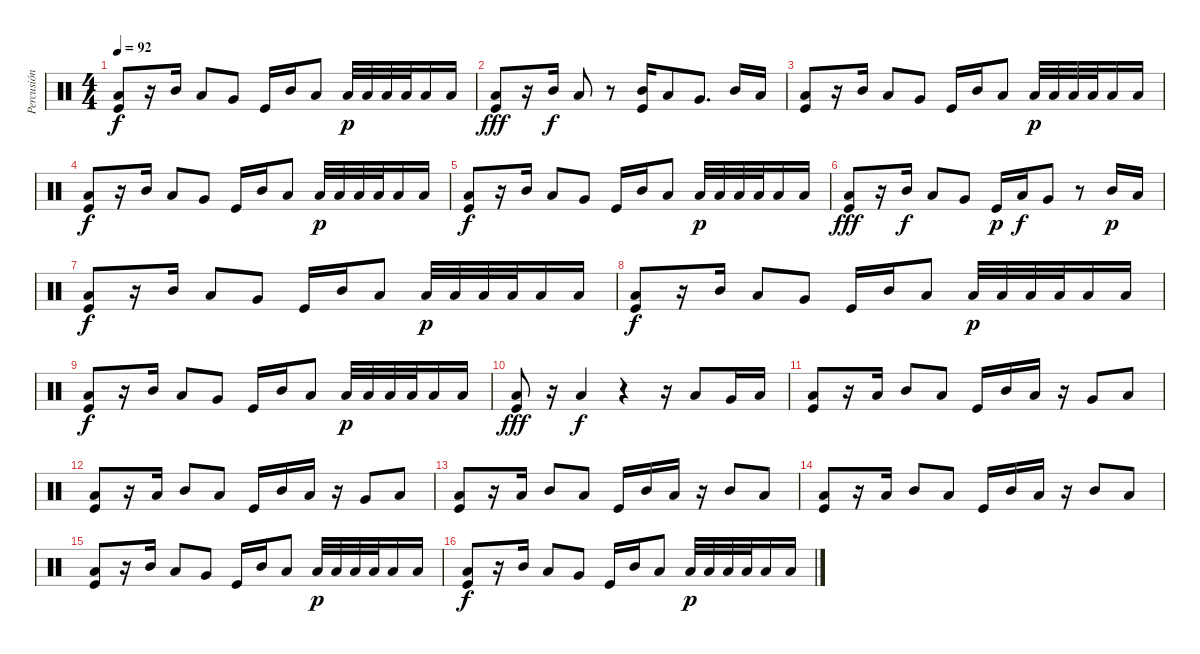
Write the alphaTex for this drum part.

\track ("Percusión" "Percusión") {instrument percussion}
\staff {score}
\articulation defaults
\ts (4 4)
\tempo 92
\clef neutral
\ks c
("Low Tom (hit)" "Kick (hit)").8{dy f} r.16 "Mid Tom (hit)".16 "Low Tom (hit)".8 "Very Low Tom (hit)".8 "Kick (hit)".16 "Mid Tom (hit)".16 "Low Tom (hit)".8 "Low Floor Tom (hit)".32{dy p} "Low Floor Tom (hit)".32 "Low Floor Tom (hit)".32 "Low Floor Tom (hit)".32 "Low Floor Tom (hit)".16 "Low Floor Tom (hit)".16 |
("Low Tom (hit)" "Kick (hit)").8{dy fff} r.16 "Mid Tom (hit)".16{dy f} "Low Tom (hit)".8 r.8 ("Mid Tom (hit)" "Kick (hit)").16 "Low Tom (hit)".8 "Very Low Tom (hit)".8{d} "Mid Tom (hit)".16 "Low Tom (hit)".16 |
("Low Tom (hit)" "Kick (hit)").8 r.16 "Mid Tom (hit)".16 "Low Tom (hit)".8 "Very Low Tom (hit)".8 "Kick (hit)".16 "Mid Tom (hit)".16 "Low Tom (hit)".8 "Low Floor Tom (hit)".32{dy p} "Low Floor Tom (hit)".32 "Low Floor Tom (hit)".32 "Low Floor Tom (hit)".32 "Low Floor Tom (hit)".16 "Low Floor Tom (hit)".16 |
("Low Tom (hit)" "Kick (hit)").8{dy f} r.16 "Mid Tom (hit)".16 "Low Tom (hit)".8 "Very Low Tom (hit)".8 "Kick (hit)".16 "Mid Tom (hit)".16 "Low Tom (hit)".8 "Low Floor Tom (hit)".32{dy p} "Low Floor Tom (hit)".32 "Low Floor Tom (hit)".32 "Low Floor Tom (hit)".32 "Low Floor Tom (hit)".16 "Low Floor Tom (hit)".16 |
("Low Tom (hit)" "Kick (hit)").8{dy f} r.16 "Mid Tom (hit)".16 "Low Tom (hit)".8 "Very Low Tom (hit)".8 "Kick (hit)".16 "Mid Tom (hit)".16 "Low Tom (hit)".8 "Low Floor Tom (hit)".32{dy p} "Low Floor Tom (hit)".32 "Low Floor Tom (hit)".32 "Low Floor Tom (hit)".32 "Low Floor Tom (hit)".16 "Low Floor Tom (hit)".16 |
("Low Tom (hit)" "Kick (hit)").8{dy fff} r.16 "Mid Tom (hit)".16{dy f} "Low Tom (hit)".8 "Very Low Tom (hit)".8 "Kick (hit)".16{dy p} "Low Tom (hit)".16{dy f} "Very Low Tom (hit)".8 r.8 "Mid Tom (hit)".16{dy p} "Low Tom (hit)".16 |
("Low Tom (hit)" "Kick (hit)").8{dy f} r.16 "Mid Tom (hit)".16 "Low Tom (hit)".8 "Very Low Tom (hit)".8 "Kick (hit)".16 "Mid Tom (hit)".16 "Low Tom (hit)".8 "Low Floor Tom (hit)".32{dy p} "Low Floor Tom (hit)".32 "Low Floor Tom (hit)".32 "Low Floor Tom (hit)".32 "Low Floor Tom (hit)".16 "Low Floor Tom (hit)".16 |
("Low Tom (hit)" "Kick (hit)").8{dy f} r.16 "Mid Tom (hit)".16 "Low Tom (hit)".8 "Very Low Tom (hit)".8 "Kick (hit)".16 "Mid Tom (hit)".16 "Low Tom (hit)".8 "Low Floor Tom (hit)".32{dy p} "Low Floor Tom (hit)".32 "Low Floor Tom (hit)".32 "Low Floor Tom (hit)".32 "Low Floor Tom (hit)".16 "Low Floor Tom (hit)".16 |
("Low Tom (hit)" "Kick (hit)").8{dy f} r.16 "Mid Tom (hit)".16 "Low Tom (hit)".8 "Very Low Tom (hit)".8 "Kick (hit)".16 "Mid Tom (hit)".16 "Low Tom (hit)".8 "Low Floor Tom (hit)".32{dy p} "Low Floor Tom (hit)".32 "Low Floor Tom (hit)".32 "Low Floor Tom (hit)".32 "Low Floor Tom (hit)".16 "Low Floor Tom (hit)".16 |
("Low Tom (hit)" "Kick (hit)").8{dy fff} r.16 "Low Tom (hit)".4{dy f} r.4 r.16 "Low Floor Tom (hit)".8 "Very Low Tom (hit)".16 "Low Floor Tom (hit)".16 |
("Low Tom (hit)" "Kick (hit)").8 r.16 "Low Tom (hit)".16 "Mid Tom (hit)".8 "Low Tom (hit)".8 "Kick (hit)".16 "Mid Tom (hit)".16 "Low Tom (hit)".16 r.16 "Very Low Tom (hit)".8 "Low Floor Tom (hit)".8 |
("Low Tom (hit)" "Kick (hit)").8 r.16 "Low Tom (hit)".16 "Mid Tom (hit)".8 "Low Tom (hit)".8 "Kick (hit)".16 "Mid Tom (hit)".16 "Low Tom (hit)".16 r.16 "Very Low Tom (hit)".8 "Low Floor Tom (hit)".8 |
("Low Tom (hit)" "Kick (hit)").8 r.16 "Low Tom (hit)".16 "Mid Tom (hit)".8 "Low Tom (hit)".8 "Kick (hit)".16 "Mid Tom (hit)".16 "Low Tom (hit)".16 r.16 "Mid Tom (hit)".8 "Low Tom (hit)".8 |
("Low Tom (hit)" "Kick (hit)").8 r.16 "Low Tom (hit)".16 "Mid Tom (hit)".8 "Low Tom (hit)".8 "Kick (hit)".16 "Mid Tom (hit)".16 "Low Tom (hit)".16 r.16 "Mid Tom (hit)".8 "Low Tom (hit)".8 |
("Low Tom (hit)" "Kick (hit)").8 r.16 "Mid Tom (hit)".16 "Low Tom (hit)".8 "Very Low Tom (hit)".8 "Kick (hit)".16 "Mid Tom (hit)".16 "Low Tom (hit)".8 "Low Floor Tom (hit)".32{dy p} "Low Floor Tom (hit)".32 "Low Floor Tom (hit)".32 "Low Floor Tom (hit)".32 "Low Floor Tom (hit)".16 "Low Floor Tom (hit)".16 |
("Low Tom (hit)" "Kick (hit)").8{dy f} r.16 "Mid Tom (hit)".16 "Low Tom (hit)".8 "Very Low Tom (hit)".8 "Kick (hit)".16 "Mid Tom (hit)".16 "Low Tom (hit)".8 "Low Floor Tom (hit)".32{dy p} "Low Floor Tom (hit)".32 "Low Floor Tom (hit)".32 "Low Floor Tom (hit)".32 "Low Floor Tom (hit)".16 "Low Floor Tom (hit)".16
